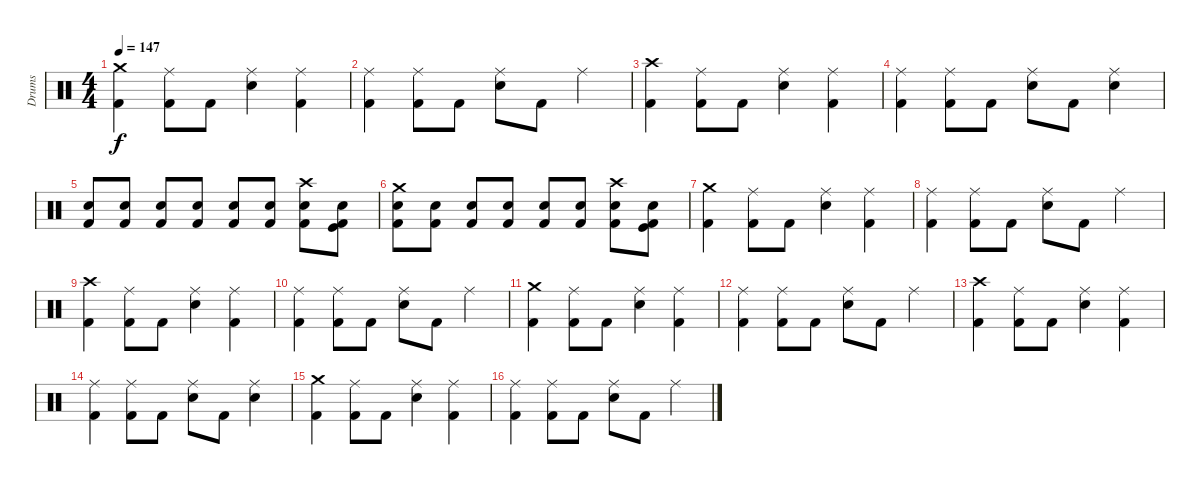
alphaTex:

\track ("Drums" "Drums") {instrument percussion}
\staff {score}
\articulation defaults
\ts (4 4)
\tempo 147
\clef neutral
\ks c
("Crash medium (hit)" "Kick (hit) 2").4{dy f} ("Ride (middle)" "Kick (hit) 2").8 "Kick (hit) 2".8 ("Ride (middle)" "Snare (hit) 2").4 ("Ride (middle)" "Kick (hit) 2").4 |
("Ride (middle)" "Kick (hit) 2").4 ("Ride (middle)" "Kick (hit) 2").8 "Kick (hit) 2".8 ("Ride (middle)" "Snare (hit) 2").8 "Kick (hit) 2".8 "Ride (middle)".4 |
("Crash high (hit)" "Kick (hit) 2").4 ("Ride (middle)" "Kick (hit) 2").8 "Kick (hit) 2".8 ("Ride (middle)" "Snare (hit) 2").4 ("Ride (middle)" "Kick (hit) 2").4 |
("Ride (middle)" "Kick (hit) 2").4 ("Ride (middle)" "Kick (hit) 2").8 "Kick (hit) 2".8 ("Ride (middle)" "Snare (hit) 2").8 "Kick (hit) 2".8 ("Ride (middle)" "Snare (hit) 2").4 |
("Kick (hit) 2" "Snare (hit) 2").8 ("Kick (hit) 2" "Snare (hit) 2").8 ("Kick (hit) 2" "Snare (hit) 2").8 ("Kick (hit) 2" "Snare (hit) 2").8 ("Kick (hit) 2" "Snare (hit) 2").8 ("Kick (hit) 2" "Snare (hit) 2").8 ("Crash high (hit)" "Kick (hit) 2" "Snare (hit) 2").8 ("Kick (hit)" "Kick (hit) 2" "Snare (hit) 2").8 |
("Crash medium (hit)" "Kick (hit) 2" "Snare (hit) 2").8 ("Kick (hit) 2" "Snare (hit) 2").8 ("Kick (hit) 2" "Snare (hit) 2").8 ("Kick (hit) 2" "Snare (hit) 2").8 ("Kick (hit) 2" "Snare (hit) 2").8 ("Kick (hit) 2" "Snare (hit) 2").8 ("Crash high (hit)" "Kick (hit) 2" "Snare (hit) 2").8 ("Kick (hit)" "Kick (hit) 2" "Snare (hit) 2").8 |
("Crash medium (hit)" "Kick (hit) 2").4 ("Ride (middle)" "Kick (hit) 2").8 "Kick (hit) 2".8 ("Ride (middle)" "Snare (hit) 2").4 ("Ride (middle)" "Kick (hit) 2").4 |
("Ride (middle)" "Kick (hit) 2").4 ("Ride (middle)" "Kick (hit) 2").8 "Kick (hit) 2".8 ("Ride (middle)" "Snare (hit) 2").8 "Kick (hit) 2".8 "Ride (middle)".4 |
("Crash high (hit)" "Kick (hit) 2").4 ("Ride (middle)" "Kick (hit) 2").8 "Kick (hit) 2".8 ("Ride (middle)" "Snare (hit) 2").4 ("Ride (middle)" "Kick (hit) 2").4 |
("Ride (middle)" "Kick (hit) 2").4 ("Ride (middle)" "Kick (hit) 2").8 "Kick (hit) 2".8 ("Ride (middle)" "Snare (hit) 2").8 "Kick (hit) 2".8 "Ride (middle)".4 |
("Crash medium (hit)" "Kick (hit) 2").4 ("Ride (middle)" "Kick (hit) 2").8 "Kick (hit) 2".8 ("Ride (middle)" "Snare (hit) 2").4 ("Ride (middle)" "Kick (hit) 2").4 |
("Ride (middle)" "Kick (hit) 2").4 ("Ride (middle)" "Kick (hit) 2").8 "Kick (hit) 2".8 ("Ride (middle)" "Snare (hit) 2").8 "Kick (hit) 2".8 "Ride (middle)".4 |
("Crash high (hit)" "Kick (hit) 2").4 ("Ride (middle)" "Kick (hit) 2").8 "Kick (hit) 2".8 ("Ride (middle)" "Snare (hit) 2").4 ("Ride (middle)" "Kick (hit) 2").4 |
("Ride (middle)" "Kick (hit) 2").4 ("Ride (middle)" "Kick (hit) 2").8 "Kick (hit) 2".8 ("Ride (middle)" "Snare (hit) 2").8 "Kick (hit) 2".8 ("Ride (middle)" "Snare (hit) 2").4 |
("Crash medium (hit)" "Kick (hit) 2").4 ("Ride (middle)" "Kick (hit) 2").8 "Kick (hit) 2".8 ("Ride (middle)" "Snare (hit) 2").4 ("Ride (middle)" "Kick (hit) 2").4 |
("Ride (middle)" "Kick (hit) 2").4 ("Ride (middle)" "Kick (hit) 2").8 "Kick (hit) 2".8 ("Ride (middle)" "Snare (hit) 2").8 "Kick (hit) 2".8 "Ride (middle)".4
